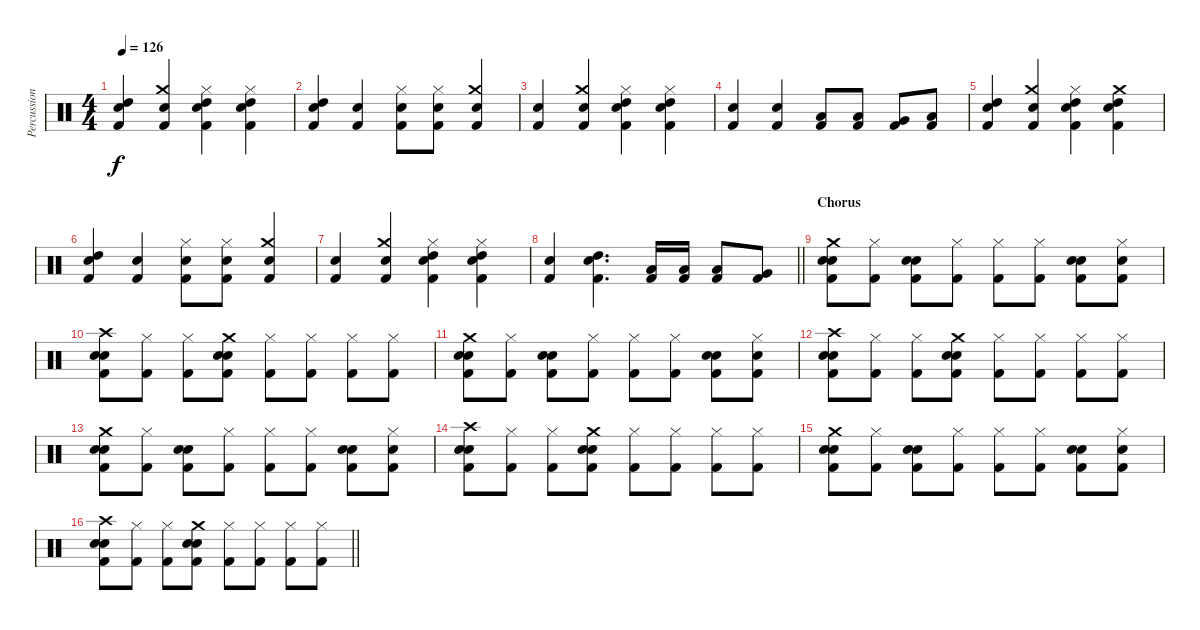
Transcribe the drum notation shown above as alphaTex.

\track ("Percussion" "Percussion") {instrument percussion}
\staff {score}
\articulation defaults
\ts (4 4)
\tempo 126
\clef neutral
\ks c
("High Tom (hit)" "Electric Snare (hit)" "Kick (hit) 2").4{dy f} ("Crash medium (hit)" "Snare (hit) 2" "Kick (hit) 2").4 ("High Tom (hit)" "Hi-Hat (closed)" "Electric Snare (hit)" "Kick (hit) 2").4 ("High Tom (hit)" "Hi-Hat (closed)" "Snare (hit) 2" "Kick (hit) 2").4 |
("High Tom (hit)" "Electric Snare (hit)" "Kick (hit) 2").4 ("Snare (hit) 2" "Kick (hit) 2").4 ("Hi-Hat (closed)" "Electric Snare (hit)" "Kick (hit) 2").8 ("Hi-Hat (closed)" "Snare (hit) 2" "Kick (hit) 2").8 ("Crash medium (hit)" "Snare (hit) 2" "Kick (hit) 2").4 |
("Electric Snare (hit)" "Kick (hit) 2").4 ("Crash medium (hit)" "Snare (hit) 2" "Kick (hit) 2").4 ("High Tom (hit)" "Hi-Hat (closed)" "Electric Snare (hit)" "Kick (hit) 2").4 ("High Tom (hit)" "Hi-Hat (closed)" "Snare (hit) 2" "Kick (hit) 2").4 |
("Electric Snare (hit)" "Kick (hit) 2").4 ("Snare (hit) 2" "Kick (hit) 2").4 ("Low Tom (hit)" "Kick (hit) 2").8 ("Low Tom (hit)" "Kick (hit) 2").8 ("Very Low Tom (hit)" "Kick (hit) 2").8 ("Low Floor Tom (hit)" "Kick (hit) 2").8 |
("High Tom (hit)" "Electric Snare (hit)" "Kick (hit) 2").4 ("Crash medium (hit)" "Snare (hit) 2" "Kick (hit) 2").4 ("High Tom (hit)" "Hi-Hat (closed)" "Electric Snare (hit)" "Kick (hit) 2").4 ("High Tom (hit)" "Crash medium (hit)" "Snare (hit) 2" "Kick (hit) 2").4 |
("High Tom (hit)" "Electric Snare (hit)" "Kick (hit) 2").4 ("Snare (hit) 2" "Kick (hit) 2").4 ("Hi-Hat (closed)" "Electric Snare (hit)" "Kick (hit) 2").8 ("Hi-Hat (closed)" "Snare (hit) 2" "Kick (hit) 2").8 ("Crash medium (hit)" "Snare (hit) 2" "Kick (hit) 2").4 |
("Electric Snare (hit)" "Kick (hit) 2").4 ("Crash medium (hit)" "Snare (hit) 2" "Kick (hit) 2").4 ("High Tom (hit)" "Hi-Hat (closed)" "Electric Snare (hit)" "Kick (hit) 2").4 ("High Tom (hit)" "Hi-Hat (closed)" "Snare (hit) 2" "Kick (hit) 2").4 |
\barLineRight lightlight
("Electric Snare (hit)" "Kick (hit) 2").4 ("High Tom (hit)" "Snare (hit) 2" "Kick (hit) 2").4{d} ("Low Tom (hit)" "Kick (hit) 2").16 ("Low Tom (hit)" "Kick (hit) 2").16 ("Low Tom (hit)" "Kick (hit) 2").8 ("Very Low Tom (hit)" "Kick (hit) 2").8 |
\section ("" "Chorus")
("Kick (hit) 2" "Crash medium (hit)" "Snare (hit) 2" "Electric Snare (hit)").8 ("Hi-Hat (closed)" "Kick (hit) 2").8 ("Kick (hit) 2" "Snare (hit) 2" "Electric Snare (hit)").8 ("Hi-Hat (closed)" "Kick (hit) 2").8 ("Hi-Hat (closed)" "Kick (hit) 2").8 ("Hi-Hat (closed)" "Kick (hit) 2").8 ("Kick (hit) 2" "Snare (hit) 2" "Electric Snare (hit)").8 ("Snare (hit) 2" "Hi-Hat (closed)" "Kick (hit) 2").8 |
("Kick (hit) 2" "Crash high (hit)" "Snare (hit) 2" "Electric Snare (hit)").8 ("Hi-Hat (closed)" "Kick (hit) 2").8 ("Hi-Hat (closed)" "Kick (hit) 2").8 ("Kick (hit) 2" "Crash medium (hit)" "Snare (hit) 2" "Electric Snare (hit)").8 ("Hi-Hat (closed)" "Kick (hit) 2").8 ("Hi-Hat (closed)" "Kick (hit) 2").8 ("Hi-Hat (closed)" "Kick (hit) 2").8 ("Hi-Hat (closed)" "Kick (hit) 2").8 |
("Kick (hit) 2" "Crash medium (hit)" "Snare (hit) 2" "Electric Snare (hit)").8 ("Hi-Hat (closed)" "Kick (hit) 2").8 ("Kick (hit) 2" "Snare (hit) 2" "Electric Snare (hit)").8 ("Hi-Hat (closed)" "Kick (hit) 2").8 ("Hi-Hat (closed)" "Kick (hit) 2").8 ("Hi-Hat (closed)" "Kick (hit) 2").8 ("Kick (hit) 2" "Snare (hit) 2" "Electric Snare (hit)").8 ("Snare (hit) 2" "Hi-Hat (closed)" "Kick (hit) 2").8 |
("Kick (hit) 2" "Crash high (hit)" "Snare (hit) 2" "Electric Snare (hit)").8 ("Hi-Hat (closed)" "Kick (hit) 2").8 ("Hi-Hat (closed)" "Kick (hit) 2").8 ("Kick (hit) 2" "Crash medium (hit)" "Snare (hit) 2" "Electric Snare (hit)").8 ("Hi-Hat (closed)" "Kick (hit) 2").8 ("Hi-Hat (closed)" "Kick (hit) 2").8 ("Hi-Hat (closed)" "Kick (hit) 2").8 ("Hi-Hat (closed)" "Kick (hit) 2").8 |
("Kick (hit) 2" "Crash medium (hit)" "Snare (hit) 2" "Electric Snare (hit)").8 ("Hi-Hat (closed)" "Kick (hit) 2").8 ("Kick (hit) 2" "Snare (hit) 2" "Electric Snare (hit)").8 ("Hi-Hat (closed)" "Kick (hit) 2").8 ("Hi-Hat (closed)" "Kick (hit) 2").8 ("Hi-Hat (closed)" "Kick (hit) 2").8 ("Kick (hit) 2" "Snare (hit) 2" "Electric Snare (hit)").8 ("Snare (hit) 2" "Hi-Hat (closed)" "Kick (hit) 2").8 |
("Kick (hit) 2" "Crash high (hit)" "Snare (hit) 2" "Electric Snare (hit)").8 ("Hi-Hat (closed)" "Kick (hit) 2").8 ("Hi-Hat (closed)" "Kick (hit) 2").8 ("Kick (hit) 2" "Crash medium (hit)" "Snare (hit) 2" "Electric Snare (hit)").8 ("Hi-Hat (closed)" "Kick (hit) 2").8 ("Hi-Hat (closed)" "Kick (hit) 2").8 ("Hi-Hat (closed)" "Kick (hit) 2").8 ("Hi-Hat (closed)" "Kick (hit) 2").8 |
("Kick (hit) 2" "Crash medium (hit)" "Snare (hit) 2" "Electric Snare (hit)").8 ("Hi-Hat (closed)" "Kick (hit) 2").8 ("Kick (hit) 2" "Snare (hit) 2" "Electric Snare (hit)").8 ("Hi-Hat (closed)" "Kick (hit) 2").8 ("Hi-Hat (closed)" "Kick (hit) 2").8 ("Hi-Hat (closed)" "Kick (hit) 2").8 ("Kick (hit) 2" "Snare (hit) 2" "Electric Snare (hit)").8 ("Snare (hit) 2" "Hi-Hat (closed)" "Kick (hit) 2").8 |
\barLineRight lightlight
("Kick (hit) 2" "Crash high (hit)" "Snare (hit) 2" "Electric Snare (hit)").8 ("Hi-Hat (closed)" "Kick (hit) 2").8 ("Hi-Hat (closed)" "Kick (hit) 2").8 ("Kick (hit) 2" "Crash medium (hit)" "Snare (hit) 2" "Electric Snare (hit)").8 ("Hi-Hat (closed)" "Kick (hit) 2").8 ("Hi-Hat (closed)" "Kick (hit) 2").8 ("Hi-Hat (closed)" "Kick (hit) 2").8 ("Hi-Hat (closed)" "Kick (hit) 2").8
